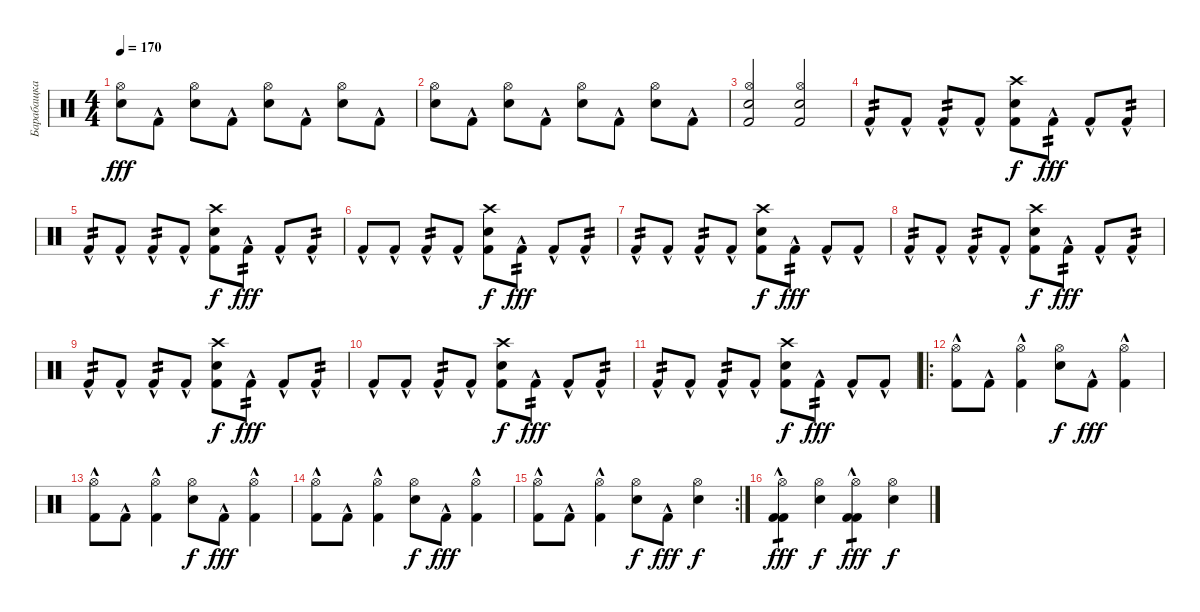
\track ("Барабащка" "Барабащка") {instrument percussion}
\staff {score}
\articulation defaults
\ts (4 4)
\tempo 170
\clef neutral
\ks c
("Snare (hit) 2" "Hi-Hat (open)").8{dy fff} "Kick (hit) 2"{hac}.8 ("Snare (hit) 2" "Hi-Hat (open)").8 "Kick (hit) 2"{hac}.8 ("Snare (hit) 2" "Hi-Hat (open)").8 "Kick (hit) 2"{hac}.8 ("Snare (hit) 2" "Hi-Hat (open)").8 "Kick (hit) 2"{hac}.8 |
("Snare (hit) 2" "Hi-Hat (open)").8 "Kick (hit) 2"{hac}.8 ("Snare (hit) 2" "Hi-Hat (open)").8 "Kick (hit) 2"{hac}.8 ("Snare (hit) 2" "Hi-Hat (open)").8 "Kick (hit) 2"{hac}.8 ("Snare (hit) 2" "Hi-Hat (open)").8 "Kick (hit) 2"{hac}.8 |
("Snare (hit) 2" "Hi-Hat (open)" "Kick (hit) 2").2 ("Snare (hit) 2" "Hi-Hat (open)" "Kick (hit) 2").2 |
"Kick (hit) 2"{hac}.8{tp 2} "Kick (hit) 2"{hac}.8 "Kick (hit) 2"{hac}.8{tp 2} "Kick (hit) 2"{hac}.8 ("Crash high (hit)" "Snare (hit) 2" "Kick (hit) 2").8{dy f} "Kick (hit) 2"{hac}.8{tp 2 dy fff} "Kick (hit) 2"{hac}.8 "Kick (hit) 2"{hac}.8{tp 2} |
"Kick (hit) 2"{hac}.8{tp 2} "Kick (hit) 2"{hac}.8 "Kick (hit) 2"{hac}.8{tp 2} "Kick (hit) 2"{hac}.8 ("Crash high (hit)" "Snare (hit) 2" "Kick (hit) 2").8{dy f} "Kick (hit) 2"{hac}.8{tp 2 dy fff} "Kick (hit) 2"{hac}.8 "Kick (hit) 2"{hac}.8{tp 2} |
"Kick (hit) 2"{hac}.8 "Kick (hit) 2"{hac}.8 "Kick (hit) 2"{hac}.8{tp 2} "Kick (hit) 2"{hac}.8 ("Crash high (hit)" "Snare (hit) 2" "Kick (hit) 2").8{dy f} "Kick (hit) 2"{hac}.8{tp 2 dy fff} "Kick (hit) 2"{hac}.8 "Kick (hit) 2"{hac}.8{tp 2} |
"Kick (hit) 2"{hac}.8{tp 2} "Kick (hit) 2"{hac}.8 "Kick (hit) 2"{hac}.8{tp 2} "Kick (hit) 2"{hac}.8 ("Crash high (hit)" "Snare (hit) 2" "Kick (hit) 2").8{dy f} "Kick (hit) 2"{hac}.8{tp 2 dy fff} "Kick (hit) 2"{hac}.8 "Kick (hit) 2"{hac}.8 |
"Kick (hit) 2"{hac}.8{tp 2} "Kick (hit) 2"{hac}.8 "Kick (hit) 2"{hac}.8{tp 2} "Kick (hit) 2"{hac}.8 ("Crash high (hit)" "Snare (hit) 2" "Kick (hit) 2").8{dy f} "Kick (hit) 2"{hac}.8{tp 2 dy fff} "Kick (hit) 2"{hac}.8 "Kick (hit) 2"{hac}.8{tp 2} |
"Kick (hit) 2"{hac}.8{tp 2} "Kick (hit) 2"{hac}.8 "Kick (hit) 2"{hac}.8{tp 2} "Kick (hit) 2"{hac}.8 ("Crash high (hit)" "Snare (hit) 2" "Kick (hit) 2").8{dy f} "Kick (hit) 2"{hac}.8{tp 2 dy fff} "Kick (hit) 2"{hac}.8 "Kick (hit) 2"{hac}.8{tp 2} |
"Kick (hit) 2"{hac}.8 "Kick (hit) 2"{hac}.8 "Kick (hit) 2"{hac}.8{tp 2} "Kick (hit) 2"{hac}.8 ("Crash high (hit)" "Snare (hit) 2" "Kick (hit) 2").8{dy f} "Kick (hit) 2"{hac}.8{tp 2 dy fff} "Kick (hit) 2"{hac}.8 "Kick (hit) 2"{hac}.8{tp 2} |
"Kick (hit) 2"{hac}.8{tp 2} "Kick (hit) 2"{hac}.8 "Kick (hit) 2"{hac}.8{tp 2} "Kick (hit) 2"{hac}.8 ("Crash high (hit)" "Snare (hit) 2" "Kick (hit) 2").8{dy f} "Kick (hit) 2"{hac}.8{tp 2 dy fff} "Kick (hit) 2"{hac}.8 "Kick (hit) 2"{hac}.8 |
\ro
("Hi-Hat (open)" "Kick (hit) 2"{hac}).8 "Kick (hit) 2"{hac}.8 ("Kick (hit) 2"{hac} "Hi-Hat (open)").4 ("Hi-Hat (open)" "Snare (hit) 2").8{dy f} "Kick (hit) 2"{hac}.8{dy fff} ("Kick (hit) 2"{hac} "Hi-Hat (open)").4 |
("Hi-Hat (open)" "Kick (hit) 2"{hac}).8 "Kick (hit) 2"{hac}.8 ("Kick (hit) 2"{hac} "Hi-Hat (open)").4 ("Hi-Hat (open)" "Snare (hit) 2").8{dy f} "Kick (hit) 2"{hac}.8{dy fff} ("Kick (hit) 2"{hac} "Hi-Hat (open)").4 |
("Hi-Hat (open)" "Kick (hit) 2"{hac}).8 "Kick (hit) 2"{hac}.8 ("Kick (hit) 2"{hac} "Hi-Hat (open)").4 ("Hi-Hat (open)" "Snare (hit) 2").8{dy f} "Kick (hit) 2"{hac}.8{dy fff} ("Kick (hit) 2"{hac} "Hi-Hat (open)").4 |
\rc 2
("Hi-Hat (open)" "Kick (hit) 2"{hac}).8 "Kick (hit) 2"{hac}.8 ("Kick (hit) 2"{hac} "Hi-Hat (open)").4 ("Hi-Hat (open)" "Snare (hit) 2").8{dy f} "Kick (hit) 2"{hac}.8{dy fff} ("Hi-Hat (open)" "Snare (hit) 2").4{dy f} |
("Hi-Hat (open)" "Kick (hit) 2"{hac} "Kick (hit) 2").4{tp 1 dy fff} ("Hi-Hat (open)" "Snare (hit) 2").4{dy f} ("Hi-Hat (open)" "Kick (hit) 2"{hac} "Kick (hit) 2").4{tp 1 dy fff} ("Hi-Hat (open)" "Snare (hit) 2").4{dy f}
